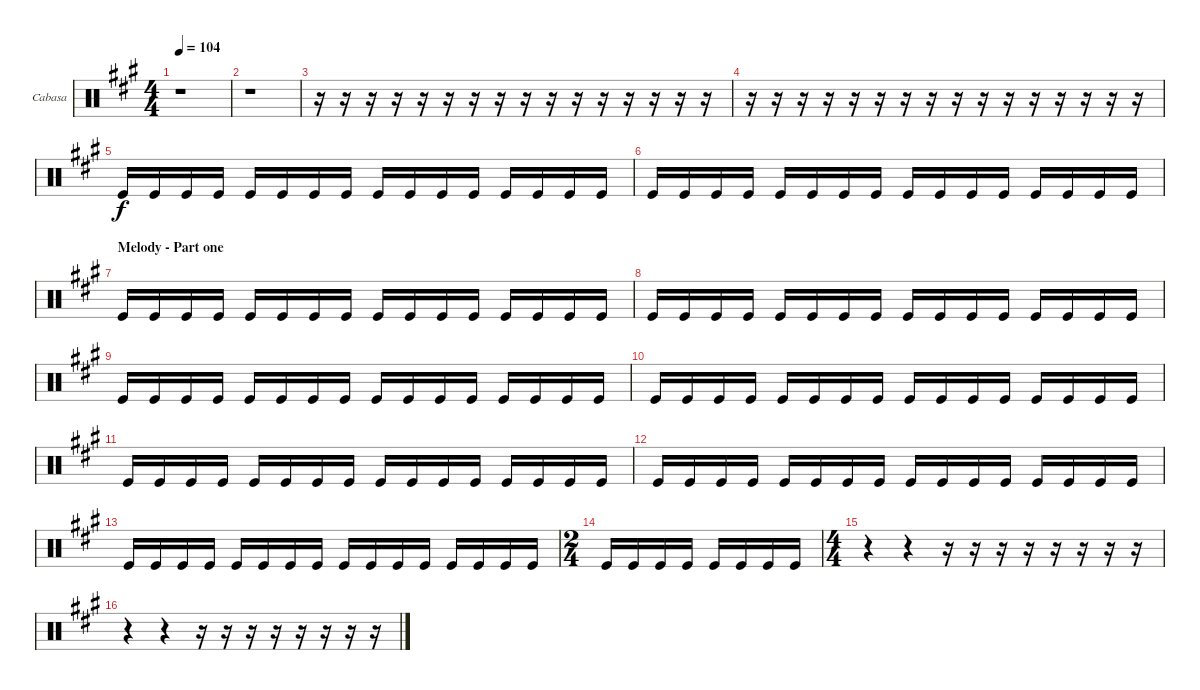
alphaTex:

\bracketExtendMode groupsimilarinstruments
\firstSystemTrackNameOrientation horizontal
\otherSystemsTrackNameOrientation horizontal
\track ("Cabasa" "Cabasa") {instrument percussion}
\staff {score}
\articulation defaults
\ts (4 4)
\beaming (8 2 2 2 2)
\tempo 104
\clef neutral
\ks a
r.1{dy f} |
r.1 |
r.16 r.16 r.16 r.16 r.16 r.16 r.16 r.16 r.16 r.16 r.16 r.16 r.16 r.16 r.16 r.16 |
r.16 r.16 r.16 r.16 r.16 r.16 r.16 r.16 r.16 r.16 r.16 r.16 r.16 r.16 r.16 r.16 |
"Kick (hit)".16 "Kick (hit)".16 "Kick (hit)".16 "Kick (hit)".16 "Kick (hit)".16 "Kick (hit)".16 "Kick (hit)".16 "Kick (hit)".16 "Kick (hit)".16 "Kick (hit)".16 "Kick (hit)".16 "Kick (hit)".16 "Kick (hit)".16 "Kick (hit)".16 "Kick (hit)".16 "Kick (hit)".16 |
"Kick (hit)".16 "Kick (hit)".16 "Kick (hit)".16 "Kick (hit)".16 "Kick (hit)".16 "Kick (hit)".16 "Kick (hit)".16 "Kick (hit)".16 "Kick (hit)".16 "Kick (hit)".16 "Kick (hit)".16 "Kick (hit)".16 "Kick (hit)".16 "Kick (hit)".16 "Kick (hit)".16 "Kick (hit)".16 |
\section ("" "Melody - Part one")
"Kick (hit)".16 "Kick (hit)".16 "Kick (hit)".16 "Kick (hit)".16 "Kick (hit)".16 "Kick (hit)".16 "Kick (hit)".16 "Kick (hit)".16 "Kick (hit)".16 "Kick (hit)".16 "Kick (hit)".16 "Kick (hit)".16 "Kick (hit)".16 "Kick (hit)".16 "Kick (hit)".16 "Kick (hit)".16 |
"Kick (hit)".16 "Kick (hit)".16 "Kick (hit)".16 "Kick (hit)".16 "Kick (hit)".16 "Kick (hit)".16 "Kick (hit)".16 "Kick (hit)".16 "Kick (hit)".16 "Kick (hit)".16 "Kick (hit)".16 "Kick (hit)".16 "Kick (hit)".16 "Kick (hit)".16 "Kick (hit)".16 "Kick (hit)".16 |
"Kick (hit)".16 "Kick (hit)".16 "Kick (hit)".16 "Kick (hit)".16 "Kick (hit)".16 "Kick (hit)".16 "Kick (hit)".16 "Kick (hit)".16 "Kick (hit)".16 "Kick (hit)".16 "Kick (hit)".16 "Kick (hit)".16 "Kick (hit)".16 "Kick (hit)".16 "Kick (hit)".16 "Kick (hit)".16 |
"Kick (hit)".16 "Kick (hit)".16 "Kick (hit)".16 "Kick (hit)".16 "Kick (hit)".16 "Kick (hit)".16 "Kick (hit)".16 "Kick (hit)".16 "Kick (hit)".16 "Kick (hit)".16 "Kick (hit)".16 "Kick (hit)".16 "Kick (hit)".16 "Kick (hit)".16 "Kick (hit)".16 "Kick (hit)".16 |
"Kick (hit)".16 "Kick (hit)".16 "Kick (hit)".16 "Kick (hit)".16 "Kick (hit)".16 "Kick (hit)".16 "Kick (hit)".16 "Kick (hit)".16 "Kick (hit)".16 "Kick (hit)".16 "Kick (hit)".16 "Kick (hit)".16 "Kick (hit)".16 "Kick (hit)".16 "Kick (hit)".16 "Kick (hit)".16 |
"Kick (hit)".16 "Kick (hit)".16 "Kick (hit)".16 "Kick (hit)".16 "Kick (hit)".16 "Kick (hit)".16 "Kick (hit)".16 "Kick (hit)".16 "Kick (hit)".16 "Kick (hit)".16 "Kick (hit)".16 "Kick (hit)".16 "Kick (hit)".16 "Kick (hit)".16 "Kick (hit)".16 "Kick (hit)".16 |
"Kick (hit)".16 "Kick (hit)".16 "Kick (hit)".16 "Kick (hit)".16 "Kick (hit)".16 "Kick (hit)".16 "Kick (hit)".16 "Kick (hit)".16 "Kick (hit)".16 "Kick (hit)".16 "Kick (hit)".16 "Kick (hit)".16 "Kick (hit)".16 "Kick (hit)".16 "Kick (hit)".16 "Kick (hit)".16 |
\ts (2 4)
"Kick (hit)".16 "Kick (hit)".16 "Kick (hit)".16 "Kick (hit)".16 "Kick (hit)".16 "Kick (hit)".16 "Kick (hit)".16 "Kick (hit)".16 |
\ts (4 4)
r.4 r.4 r.16 r.16 r.16 r.16 r.16 r.16 r.16 r.16 |
r.4 r.4 r.16 r.16 r.16 r.16 r.16 r.16 r.16 r.16
